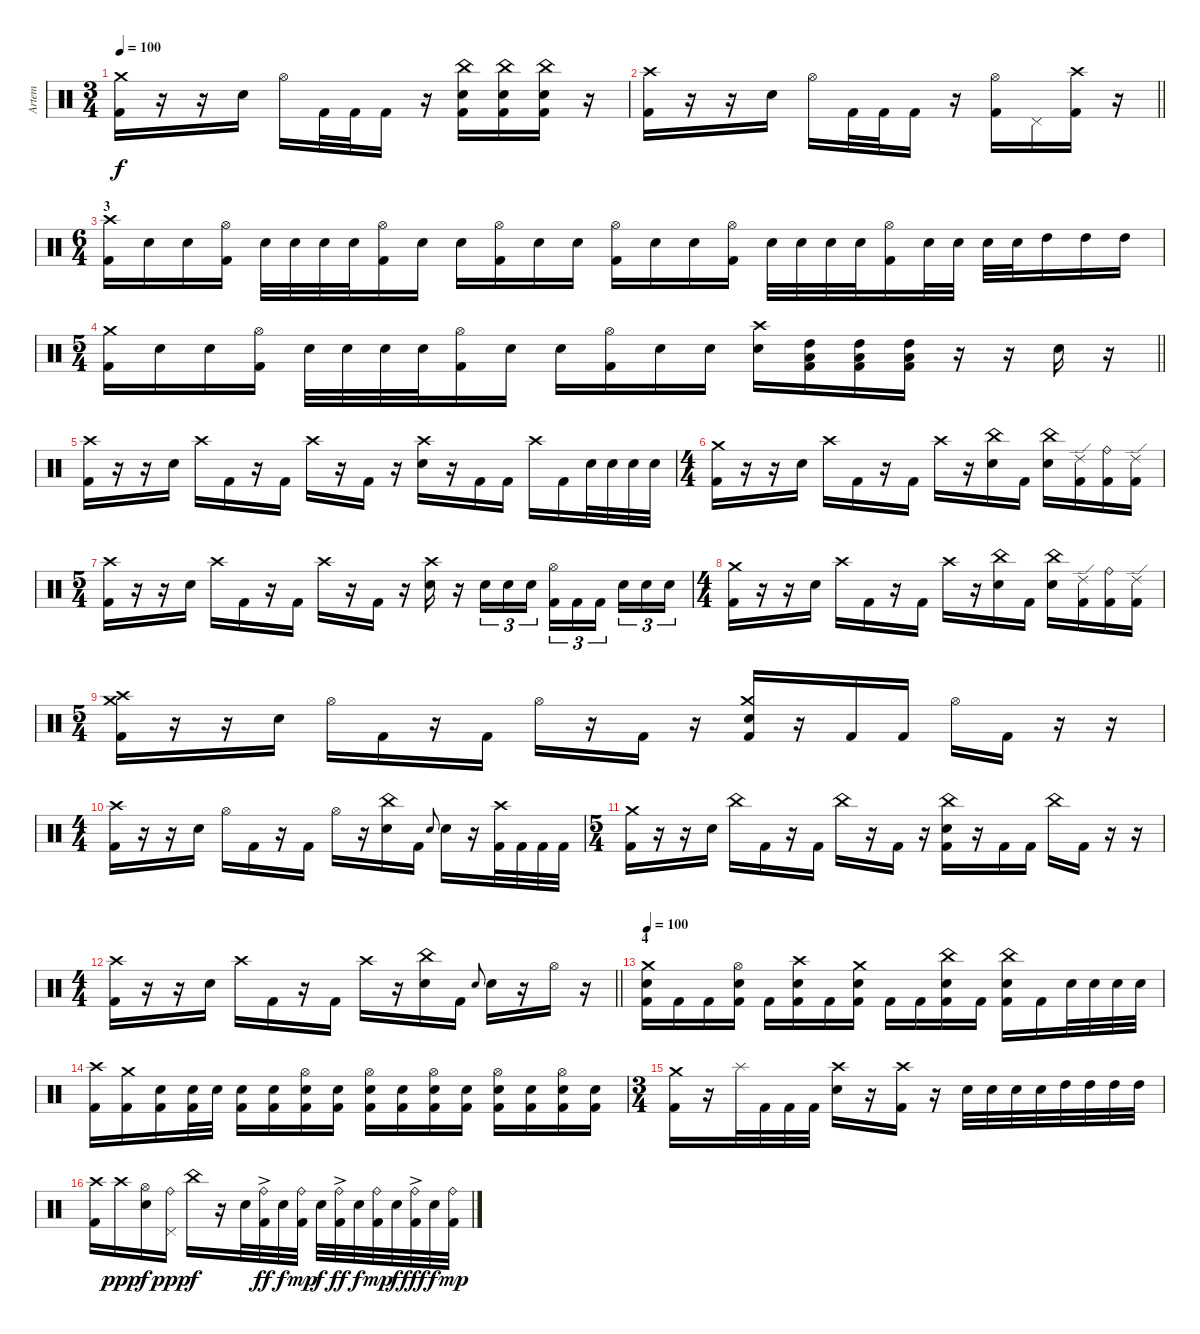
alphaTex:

\track ("Artem" "Artem") {instrument percussion}
\staff {score}
\articulation defaults
\ts (3 4)
\tempo 100
\clef neutral
\ks c
("Kick (hit) 2" "Crash medium (hit)").16{dy f} r.16 r.16 "Electric Snare (hit)".16 "Hi-Hat (open)".16 "Kick (hit) 2".32 "Kick (hit) 2".32 "Kick (hit) 2".16 r.16 ("Kick (hit) 2" "China (hit)" "Electric Snare (hit)").16 ("Kick (hit) 2" "Electric Snare (hit)" "China (hit)").16 ("Kick (hit) 2" "Electric Snare (hit)" "China (hit)").16 r.16 |
\barLineRight lightlight
("Kick (hit) 2" "Crash high (hit)").16 r.16 r.16 "Electric Snare (hit)".16 "Hi-Hat (open)".16 "Kick (hit) 2".32 "Kick (hit) 2".32 "Kick (hit) 2".16 r.16 ("Kick (hit) 2" "Hi-Hat (open)").16 "Pedal Hi-Hat (hit)".16 ("Kick (hit) 2" "Crash high (hit)").16 r.16 |
\ts (6 4)
\section ("" "3")
("Kick (hit) 2" "Crash high (hit)").16 "Electric Snare (hit)".16 "Electric Snare (hit)".16 ("Kick (hit) 2" "Hi-Hat (open)").16 "Electric Snare (hit)".32 "Electric Snare (hit)".32 "Electric Snare (hit)".32 "Electric Snare (hit)".32 ("Kick (hit) 2" "Hi-Hat (open)").16 "Electric Snare (hit)".16 "Electric Snare (hit)".16 ("Kick (hit) 2" "Hi-Hat (open)").16 "Electric Snare (hit)".16 "Electric Snare (hit)".16 ("Kick (hit) 2" "Hi-Hat (open)").16 "Electric Snare (hit)".16 "Electric Snare (hit)".16 ("Kick (hit) 2" "Hi-Hat (open)").16 "Electric Snare (hit)".32 "Electric Snare (hit)".32 "Electric Snare (hit)".32 "Electric Snare (hit)".32 ("Kick (hit) 2" "Hi-Hat (open)").16 "Electric Snare (hit)".32 "Electric Snare (hit)".32 "Electric Snare (hit)".32 "Electric Snare (hit)".32 "High Tom (hit)".16 "High Tom (hit)".16 "High Tom (hit)".16 |
\ts (5 4)
\barLineRight lightlight
("Kick (hit) 2" "Crash medium (hit)").16 "Electric Snare (hit)".16 "Electric Snare (hit)".16 ("Kick (hit) 2" "Hi-Hat (open)").16 "Electric Snare (hit)".32 "Electric Snare (hit)".32 "Electric Snare (hit)".32 "Electric Snare (hit)".32 ("Kick (hit) 2" "Hi-Hat (open)").16 "Electric Snare (hit)".16 "Electric Snare (hit)".16 ("Kick (hit) 2" "Hi-Hat (open)").16 "Electric Snare (hit)".16 "Electric Snare (hit)".16 ("Electric Snare (hit)" "Crash high (hit)").16 ("Kick (hit) 2" "High Tom (hit)" "Low Floor Tom (hit)").16 ("Kick (hit) 2" "High Tom (hit)" "Low Floor Tom (hit)").16 ("Kick (hit) 2" "High Tom (hit)" "Low Floor Tom (hit)").16 r.16 r.16 "Electric Snare (hit)".16 r.16 |
("Crash high (hit)" "Kick (hit) 2").16 r.16 r.16 "Electric Snare (hit)".16 "Crash high (hit)".16 "Kick (hit) 2".16 r.16 "Kick (hit) 2".16 "Crash high (hit)".16 r.16 "Kick (hit) 2".16 r.16 ("Crash high (hit)" "Snare (hit) 2").16 r.16 "Kick (hit) 2".16 "Kick (hit) 2".16 "Crash high (hit)".16 "Kick (hit) 2".16 "Electric Snare (hit)".32 "Electric Snare (hit)".32 "Electric Snare (hit)".32 "Electric Snare (hit)".32 |
\ts (4 4)
("Crash medium (hit)" "Kick (hit) 2").16 r.16 r.16 "Electric Snare (hit)".16 "Crash high (hit)".16 "Kick (hit) 2".16 r.16 "Kick (hit) 2".16 "Crash high (hit)".16 r.16 ("Electric Snare (hit)" "China (hit)").16 "Kick (hit) 2".16 ("China (hit)" "Electric Snare (hit)").16 ("Kick (hit) 2" "Ride (edge) 2").16 ("Kick (hit) 2" "Ride (bell)").16 ("Kick (hit) 2" "Ride (edge) 2").16 |
\ts (5 4)
("Crash high (hit)" "Kick (hit) 2").16 r.16 r.16 "Electric Snare (hit)".16 "Crash high (hit)".16 "Kick (hit) 2".16 r.16 "Kick (hit) 2".16 "Crash high (hit)".16 r.16 "Kick (hit) 2".16 r.16 ("Crash high (hit)" "Electric Snare (hit)").16 r.16 "Electric Snare (hit)".16{tu (3 2)} "Electric Snare (hit)".16{tu (3 2)} "Electric Snare (hit)".16{tu (3 2)} ("Kick (hit) 2" "Hi-Hat (open)").16{tu (3 2)} "Kick (hit) 2".16{tu (3 2)} "Kick (hit) 2".16{tu (3 2) beam splitsecondary} "Electric Snare (hit)".16{tu (3 2)} "Electric Snare (hit)".16{tu (3 2)} "Electric Snare (hit)".16{tu (3 2)} |
\ts (4 4)
("Crash medium (hit)" "Kick (hit) 2").16 r.16 r.16 "Electric Snare (hit)".16 "Crash high (hit)".16 "Kick (hit) 2".16 r.16 "Kick (hit) 2".16 "Crash high (hit)".16 r.16 ("Electric Snare (hit)" "China (hit)").16 "Kick (hit) 2".16 ("China (hit)" "Electric Snare (hit)").16 ("Kick (hit) 2" "Ride (edge) 2").16 ("Kick (hit) 2" "Ride (bell)").16 ("Kick (hit) 2" "Ride (edge) 2").16 |
\ts (5 4)
("Crash high (hit)" "Kick (hit) 2" "Crash medium (hit)").16 r.16 r.16 "Electric Snare (hit)".16 "Hi-Hat (open)".16 "Kick (hit) 2".16 r.16 "Kick (hit) 2".16 "Hi-Hat (open)".16 r.16 "Kick (hit) 2".16 r.16 ("Crash medium (hit)" "Kick (hit) 2" "Electric Snare (hit)").16 r.16 "Kick (hit) 2".16 "Kick (hit) 2".16 "Hi-Hat (open)".16 "Kick (hit) 2".16 r.16 r.16 |
\ts (4 4)
("Crash high (hit)" "Kick (hit) 2").16 r.16 r.16 "Electric Snare (hit)".16 "Hi-Hat (open)".16 "Kick (hit) 2".16 r.16 "Kick (hit) 2".16 "Hi-Hat (open)".16 r.16 ("Electric Snare (hit)" "China (hit)").16 "Kick (hit) 2".16 "Electric Snare (hit)".8{gr onbeat} "Electric Snare (hit)".16 r.16 ("Kick (hit) 2" "Crash high (hit)").32 "Kick (hit) 2".32 "Kick (hit) 2".32 "Kick (hit) 2".32 |
\ts (5 4)
("Crash medium (hit)" "Kick (hit) 2").16 r.16 r.16 "Electric Snare (hit)".16 "China (hit)".16 "Kick (hit) 2".16 r.16 "Kick (hit) 2".16 "China (hit)".16 r.16 "Kick (hit) 2".16 r.16 ("China (hit)" "Kick (hit) 2" "Electric Snare (hit)").16 r.16 "Kick (hit) 2".16 "Kick (hit) 2".16 "China (hit)".16 "Kick (hit) 2".16 r.16 r.16 |
\ts (4 4)
\barLineRight lightlight
("Crash high (hit)" "Kick (hit) 2").16 r.16 r.16 "Electric Snare (hit)".16 "Crash high (hit)".16 "Kick (hit) 2".16 r.16 "Kick (hit) 2".16 "Crash high (hit)".16 r.16 ("Electric Snare (hit)" "China (hit)").16 "Kick (hit) 2".16 "Electric Snare (hit)".8{gr onbeat} "Electric Snare (hit)".16 r.16 "Hi-Hat (open)".16 r.16 |
\section ("" "4")
\tempo 100
("Crash medium (hit)" "Electric Snare (hit)" "Kick (hit) 2").16 "Kick (hit) 2".16 "Kick (hit) 2".16 ("Kick (hit) 2" "Electric Snare (hit)" "Hi-Hat (open)").16 "Kick (hit) 2".16 ("Kick (hit) 2" "Electric Snare (hit)" "Crash high (hit)").16 "Kick (hit) 2".16 ("Kick (hit) 2" "Electric Snare (hit)" "Crash medium (hit)").16 "Kick (hit) 2".16 "Kick (hit) 2".16 ("China (hit)" "Kick (hit) 2" "Electric Snare (hit)").16 "Kick (hit) 2".16 ("China (hit)" "Kick (hit) 2" "Electric Snare (hit)").16 "Kick (hit) 2".16 "Electric Snare (hit)".32 "Electric Snare (hit)".32 "Electric Snare (hit)".32 "Electric Snare (hit)".32 |
("Kick (hit) 2" "Crash high (hit)").16 ("Kick (hit) 2" "Crash medium (hit)").16 ("Kick (hit) 2" "Electric Snare (hit)").16 ("Kick (hit) 2" "Electric Snare (hit)").32 "Electric Snare (hit)".32 ("Kick (hit) 2" "Electric Snare (hit)").16 ("Kick (hit) 2" "Electric Snare (hit)").16 ("Kick (hit) 2" "Electric Snare (hit)" "Hi-Hat (open)").16 ("Kick (hit) 2" "Electric Snare (hit)").16 ("Kick (hit) 2" "Electric Snare (hit)" "Hi-Hat (open)").16 ("Kick (hit) 2" "Electric Snare (hit)").16 ("Kick (hit) 2" "Electric Snare (hit)" "Hi-Hat (open)").16 ("Kick (hit) 2" "Electric Snare (hit)").16 ("Kick (hit) 2" "Electric Snare (hit)" "Hi-Hat (open)").16 ("Kick (hit) 2" "Electric Snare (hit)").16 ("Kick (hit) 2" "Electric Snare (hit)" "Hi-Hat (open)").16 ("Kick (hit) 2" "Electric Snare (hit)").16 |
\ts (3 4)
("Crash medium (hit)" "Kick (hit) 2").16 r.16 "Splash (hit)".32 "Kick (hit) 2".32 "Kick (hit) 2".32 "Kick (hit) 2".32 ("Crash high (hit)" "Electric Snare (hit)").16 r.16 ("Crash high (hit)" "Kick (hit) 2").16 r.16 "Electric Snare (hit)".32 "Electric Snare (hit)".32 "Electric Snare (hit)".32 "Electric Snare (hit)".32 "High Tom (hit)".32 "High Tom (hit)".32 "High Tom (hit)".32 "High Tom (hit)".32 |
("Crash high (hit)" "Kick (hit) 2").16 "Crash high (hit)".16{dy ppp} ("Hi-Hat (open)" "Electric Snare (hit)").16{dy f} ("Pedal Hi-Hat (hit)" "Ride (bell)").16{dy ppp} "China (hit)".16{dy f} r.16 "Electric Snare (hit)".32 ("Kick (hit) 2" "Ride (bell)"{ac}).32{dy ff} "Electric Snare (hit)".32{dy f} ("Kick (hit) 2" "Ride (bell)").32{dy mp} "Electric Snare (hit)".32{dy f} ("Kick (hit) 2" "Ride (bell)"{ac}).32{dy ff} "Electric Snare (hit)".32{dy f} ("Kick (hit) 2" "Ride (bell)").32{dy mp} "Electric Snare (hit)".32{dy f} ("Kick (hit) 2" "Ride (bell)"{ac}).32{dy fff} "Electric Snare (hit)".32{dy f} ("Kick (hit) 2" "Ride (bell)").32{dy mp}
